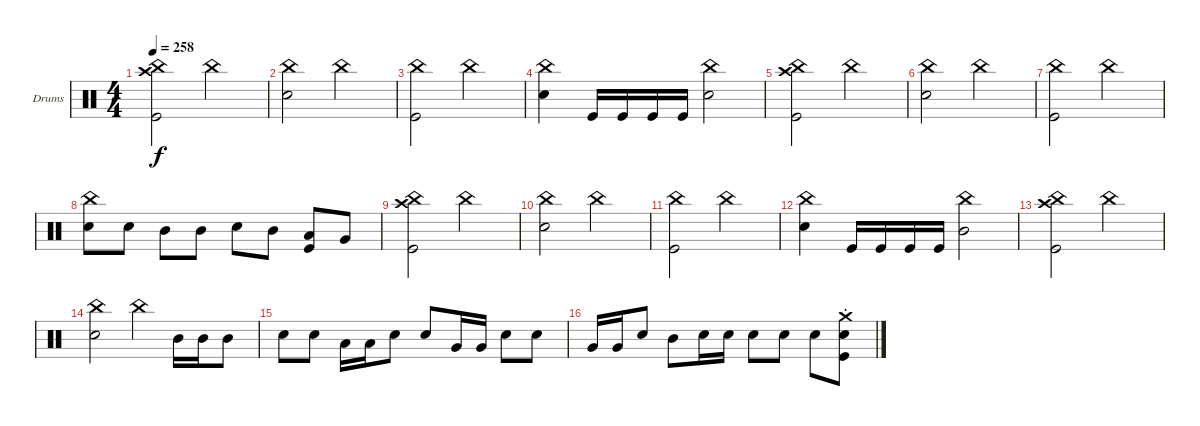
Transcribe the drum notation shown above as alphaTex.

\defaultSystemsLayout 4
\bracketExtendMode groupsimilarinstruments
\firstSystemTrackNameOrientation horizontal
\otherSystemsTrackNameOrientation horizontal
\track ("Drumkit" "Drums") {instrument percussion}
\staff {score}
\articulation defaults
\ts (4 4)
\tempo 258
\clef neutral
\ks c
("Kick (hit)" "Crash high (hit)" "China (hit)").2{dy f} "China (hit)".2 |
("Snare (hit) 2" "China (hit)").2 "China (hit)".2 |
("China (hit)" "Kick (hit)").2 "China (hit)".2 |
("China (hit)" "Snare (hit) 2").4 "Kick (hit)".16 "Kick (hit)".16 "Kick (hit)".16 "Kick (hit)".16 ("Snare (hit) 2" "China (hit)").2 |
("Crash high (hit)" "Kick (hit)" "China (hit)").2 "China (hit)".2 |
("China (hit)" "Snare (hit) 2").2 "China (hit)".2 |
("Kick (hit)" "China (hit)").2 "China (hit)".2 |
("Snare (hit) 2" "China (hit)").8 "Snare (hit) 2".8 "Mid Tom (hit)".8 "Mid Tom (hit)".8 "Snare (hit) 2".8 "Mid Tom (hit)".8 ("Low Tom (hit)" "Kick (hit)").8 "Very Low Tom (hit)".8 |
("Kick (hit)" "Crash high (hit)" "China (hit)").2 "China (hit)".2 |
("Snare (hit) 2" "China (hit)").2 "China (hit)".2 |
("China (hit)" "Kick (hit)").2 "China (hit)".2 |
("China (hit)" "Snare (hit) 2").4 "Kick (hit)".16 "Kick (hit)".16 "Kick (hit)".16 "Kick (hit)".16 ("China (hit)" "Mid Tom (hit)").2 |
("Crash high (hit)" "Kick (hit)" "China (hit)").2 "China (hit)".2 |
("China (hit)" "Snare (hit) 2").2 "China (hit)".4 "Mid Tom (hit)".16 "Mid Tom (hit)".16 "Mid Tom (hit)".8 |
"Snare (hit) 2".8 "Snare (hit) 2".8 "Low Tom (hit)".16 "Low Tom (hit)".16 "Snare (hit) 2".8 "Snare (hit) 2".8 "Very Low Tom (hit)".16 "Very Low Tom (hit)".16 "Snare (hit) 2".8 "Snare (hit) 2".8 |
"Very Low Tom (hit)".16 "Very Low Tom (hit)".16 "Snare (hit) 2".8 "Mid Tom (hit)".8 "Snare (hit) 2".16 "Snare (hit) 2".16 "Snare (hit) 2".8 "Snare (hit) 2".8 "Snare (hit) 2".8 ("Kick (hit)" "Crash medium (hit)"{st} "Snare (hit) 2").8
